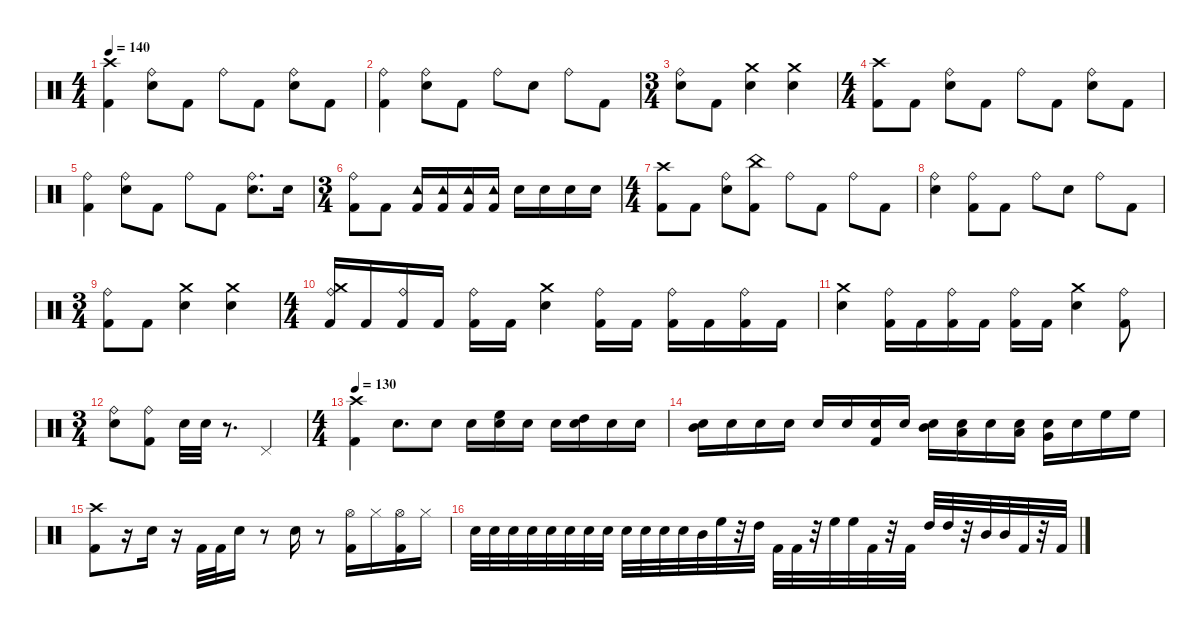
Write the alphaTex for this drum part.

\defaultSystemsLayout 4
\hideDynamics
\bracketExtendMode nobrackets
\singleTrackTrackNamePolicy hidden
\multiTrackTrackNamePolicy hidden
\firstSystemTrackNameMode fullname
\otherSystemsTrackNameOrientation horizontal
\track ("Drums" "drm.") {instrument percussion}
\staff {score}
\articulation defaults
\ts (4 4)
\beaming (8 2 2 2 2)
\tempo 140
\clef neutral
\ks c
("Kick (hit) 2" "Crash high (hit)").4{dy f beam Down} ("Snare (hit) 2" "Ride (bell)").8{beam Down} "Kick (hit) 2".8{beam Down} "Ride (bell)".8{beam Down} "Kick (hit) 2".8{beam Down} ("Snare (hit) 2" "Ride (bell)").8{beam Down} "Kick (hit) 2".8{beam Down} |
("Kick (hit) 2" "Ride (bell)").4{beam Down} ("Snare (hit) 2" "Ride (bell)").8{beam Down} "Kick (hit) 2".8{beam Down} "Ride (bell)".8{beam Down} "Snare (hit) 2".8{beam Down} "Ride (bell)".8{beam Down} "Kick (hit) 2".8{beam Down} |
\ts (3 4)
\beaming (8 2 2 2 2)
("Ride (bell)" "Snare (hit) 2").8{beam Down} "Kick (hit) 2".8{beam Down} ("Snare (hit) 2" "Crash medium (hit)").4{beam Down} ("Snare (hit) 2" "Crash medium (hit)").4{beam Down} |
\ts (4 4)
\beaming (8 2 2 2 2)
("Crash high (hit)" "Kick (hit) 2").8{beam Down} "Kick (hit) 2".8{beam Down} ("Snare (hit) 2" "Ride (bell)").8{beam Down} "Kick (hit) 2".8{beam Down} "Ride (bell)".8{beam Down} "Kick (hit) 2".8{beam Down} ("Snare (hit) 2" "Ride (bell)").8{beam Down} "Kick (hit) 2".8{beam Down} |
("Kick (hit) 2" "Ride (bell)").4{beam Down} ("Snare (hit) 2" "Ride (bell)").8{beam Down} "Kick (hit) 2".8{beam Down} "Ride (bell)".8{beam Down} "Kick (hit) 2".8{beam Down} ("Snare (hit) 2" "Ride (bell)").8{d beam Down} "Snare (hit) 2".16{beam Down} |
\ts (3 4)
\beaming (8 2 2 2 2)
("Ride (bell)" "Kick (hit) 2").8{beam Down} "Kick (hit) 2".8{beam Down} ("Kick (hit) 2" "Tambourine (hit)").16{beam Up} ("Tambourine (hit)" "Kick (hit) 2").16{beam Up} ("Tambourine (hit)" "Kick (hit) 2").16{beam Up} ("Tambourine (hit)" "Kick (hit) 2").16{beam Up} "Snare (hit) 2".16{beam Down} "Snare (hit) 2".16{beam Down} "Snare (hit) 2".16{beam Down} "Snare (hit) 2".16{beam Down} |
\ts (4 4)
\beaming (8 2 2 2 2)
("Crash high (hit)" "Kick (hit) 2").8{beam Down} "Kick (hit) 2".8{beam Down} ("Snare (hit) 2" "Ride (bell)").8{beam Down} ("Kick (hit) 2" "China (hit)").8{beam Down} "Ride (bell)".8{beam Down} "Kick (hit) 2".8{beam Down} "Ride (bell)".8{beam Down} "Kick (hit) 2".8{beam Down} |
("Ride (bell)" "Snare (hit) 2").4{beam Down} ("Ride (bell)" "Kick (hit) 2").8{beam Down} "Kick (hit) 2".8{beam Down} "Ride (bell)".8{beam Down} "Snare (hit) 2".8{beam Down} "Ride (bell)".8{beam Down} "Kick (hit) 2".8{beam Down} |
\ts (3 4)
\beaming (8 2 2 2 2)
("Kick (hit) 2" "Ride (bell)").8{beam Down} "Kick (hit) 2".8{beam Down} ("Snare (hit) 2" "Crash medium (hit)").4{beam Down} ("Crash medium (hit)" "Snare (hit) 2").4{beam Down} |
\ts (4 4)
\beaming (8 2 2 2 2)
("Crash medium (hit)" "Kick (hit) 2" "Ride (bell)").16{beam Up} "Kick (hit) 2".16{beam Up} ("Kick (hit) 2" "Ride (bell)").16{beam Up} "Kick (hit) 2".16{beam Up} ("Kick (hit) 2" "Ride (bell)").16{beam Down} "Kick (hit) 2".16{beam Down} ("Snare (hit) 2" "Crash medium (hit)").4{beam Down} ("Ride (bell)" "Kick (hit) 2").16{beam Down} "Kick (hit) 2".16{beam Down} ("Kick (hit) 2" "Ride (bell)").16{beam Down} "Kick (hit) 2".16{beam Down} ("Kick (hit) 2" "Ride (bell)").16{beam Down} "Kick (hit) 2".16{beam Down} |
("Snare (hit) 2" "Crash medium (hit)").4{beam Down} ("Kick (hit) 2" "Ride (bell)").16{beam Down} "Kick (hit) 2".16{beam Down} ("Kick (hit) 2" "Ride (bell)").16{beam Down} "Kick (hit) 2".16{beam Down} ("Kick (hit) 2" "Ride (bell)").16{beam Down} "Kick (hit) 2".16{beam Down} ("Snare (hit) 2" "Crash medium (hit)").4{beam Down} ("Kick (hit) 2" "Ride (bell)").8{beam Down} |
\ts (3 4)
\beaming (8 2 2 2 2)
("Snare (hit) 2" "Ride (bell)").8{beam Down} ("Kick (hit) 2" "Ride (bell)").8{beam Down} "Snare (hit) 2".32{beam Down} "Snare (hit) 2".32{beam Down} r.8{d beam Down} "Pedal Hi-Hat (hit)".4{beam Up} |
\ts (4 4)
\beaming (8 2 2 2 2)
\tempo 130
("Crash high (hit)" "Kick (hit) 2").4{beam Down} "Snare (hit) 2".8{d beam Down} "Snare (hit) 2".8{beam Down} "Snare (hit) 2".16{dy p beam Down} ("High Floor Tom (hit)" "Snare (hit) 2").16{dy f beam Down} "Snare (hit) 2".16{dy p beam Down} "Snare (hit) 2".16{beam Down} ("High Tom (hit)" "Snare (hit) 2").16{dy f beam Down} "Snare (hit) 2".16{dy p beam Down} "Snare (hit) 2".16{beam Down} |
("Mid Tom (hit)" "Snare (hit) 2").16{dy f beam Down} "Snare (hit) 2".16{dy p beam Down} "Snare (hit) 2".16{beam Down} "Snare (hit) 2".16{dy f beam Down} "Snare (hit) 2".16{beam Up} "Snare (hit) 2".16{dy p beam Up} ("Kick (hit) 2" "Snare (hit) 2").16{dy f beam Up} "Snare (hit) 2".16{beam Up} ("Mid Tom (hit)" "Snare (hit) 2").16{beam Down} ("Low Tom (hit)" "Snare (hit) 2").16{beam Down} "Snare (hit) 2".16{beam Down} ("Low Tom (hit)" "Snare (hit) 2").16{beam Down} ("Very Low Tom (hit)" "Snare (hit) 2").16{beam Down} "Snare (hit) 2".16{beam Down} "High Floor Tom (hit)".16{beam Down} "High Floor Tom (hit)".16{beam Down} |
("Crash high (hit)" "Kick (hit) 2").8{beam Down} r.16{beam Down} "Snare (hit) 2".16{beam Down} r.16{beam Down} "Kick (hit) 2".32{beam Up} "Kick (hit) 2".32{beam Up} "Snare (hit) 2".16{beam Up} r.8{beam Up} "Snare (hit) 2".16{beam Down} r.8{beam Down} ("Kick (hit) 2" "Hi-Hat (open)").16{beam Down} "Hi-Hat (closed)".16{beam Down} ("Kick (hit) 2" "Hi-Hat (open)").16{beam Down} "Hi-Hat (closed)".16{beam Down} |
"Snare (hit) 2".32{beam Down} "Snare (hit) 2".32{dy mp beam Down} "Snare (hit) 2".32{beam Down} "Snare (hit) 2".32{beam Down} "Snare (hit) 2".32{beam Down} "Snare (hit) 2".32{beam Down} "Snare (hit) 2".32{beam Down} "Snare (hit) 2".32{beam Down} "Snare (hit) 2".32{dy f beam Down} "Snare (hit) 2".32{dy mp beam Down} "Snare (hit) 2".32{beam Down} "Snare (hit) 2".32{beam Down} "Mid Tom (hit)".32{dy f beam Down} "High Floor Tom (hit)".32{beam Down} r.32{beam Down} "High Tom (hit)".32{beam Down} "Kick (hit) 2".32{beam Down} "Kick (hit) 2".32{beam Down} r.32{beam Down} "High Floor Tom (hit)".32{beam Down} "High Floor Tom (hit)".32{beam Down} "Kick (hit) 2".32{beam Down} r.32{beam Down} "Kick (hit) 2".32{beam Down} "High Tom (hit)".32{beam Up} "High Tom (hit)".32{beam Up} r.32{beam Up} "Mid Tom (hit)".32{beam Up} "Mid Tom (hit)".32{beam Up} "Kick (hit) 2".32{beam Up} r.32{beam Up} "Kick (hit) 2".32{beam Up}
